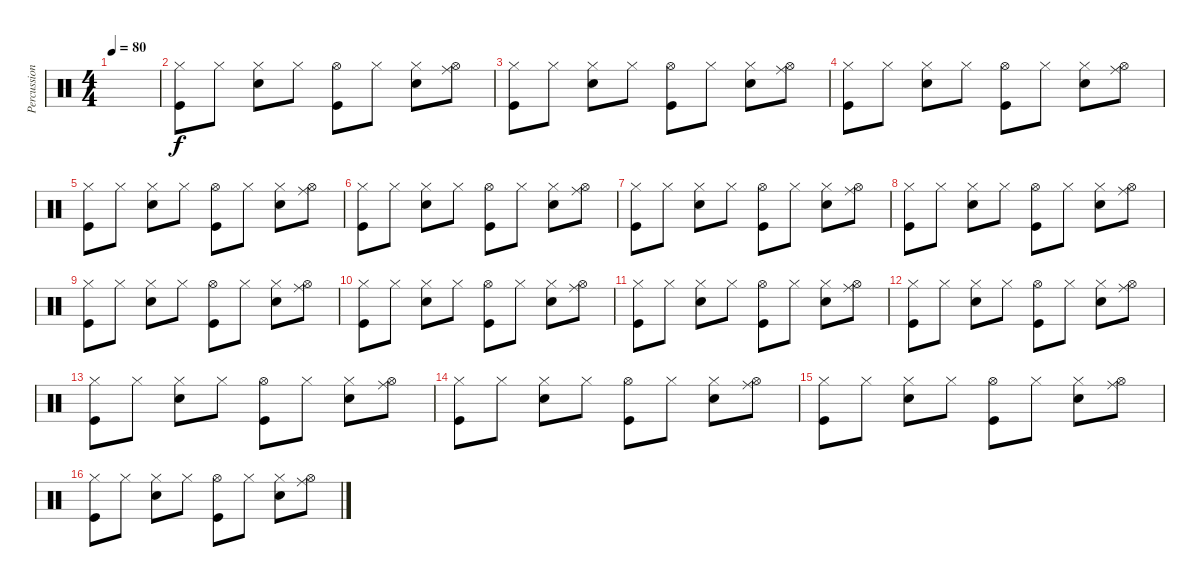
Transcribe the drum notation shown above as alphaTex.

\track ("Percussion" "Percussion") {instrument percussion}
\staff {score}
\articulation defaults
\ts (4 4)
\tempo 80
\clef neutral
\ks c
|
("Hi-Hat (closed)" "Kick (hit)").8 "Hi-Hat (closed)".8 ("Hi-Hat (closed)" "Snare (hit) 2").8 "Hi-Hat (closed)".8 ("Hi-Hat (open)" "Kick (hit)").8 "Hi-Hat (closed)".8 ("Hi-Hat (closed)" "Snare (hit) 2").8 ("Hi-Hat (open)" "Ride (middle)").8 |
("Hi-Hat (closed)" "Kick (hit)").8 "Hi-Hat (closed)".8 ("Hi-Hat (closed)" "Snare (hit) 2").8 "Hi-Hat (closed)".8 ("Hi-Hat (open)" "Kick (hit)").8 "Hi-Hat (closed)".8 ("Hi-Hat (closed)" "Snare (hit) 2").8 ("Hi-Hat (open)" "Ride (middle)").8 |
("Hi-Hat (closed)" "Kick (hit)").8 "Hi-Hat (closed)".8 ("Hi-Hat (closed)" "Snare (hit) 2").8 "Hi-Hat (closed)".8 ("Hi-Hat (open)" "Kick (hit)").8 "Hi-Hat (closed)".8 ("Hi-Hat (closed)" "Snare (hit) 2").8 ("Hi-Hat (open)" "Ride (middle)").8 |
("Hi-Hat (closed)" "Kick (hit)").8 "Hi-Hat (closed)".8 ("Hi-Hat (closed)" "Snare (hit) 2").8 "Hi-Hat (closed)".8 ("Hi-Hat (open)" "Kick (hit)").8 "Hi-Hat (closed)".8 ("Hi-Hat (closed)" "Snare (hit) 2").8 ("Hi-Hat (open)" "Ride (middle)").8 |
("Hi-Hat (closed)" "Kick (hit)").8 "Hi-Hat (closed)".8 ("Hi-Hat (closed)" "Snare (hit) 2").8 "Hi-Hat (closed)".8 ("Hi-Hat (open)" "Kick (hit)").8 "Hi-Hat (closed)".8 ("Hi-Hat (closed)" "Snare (hit) 2").8 ("Hi-Hat (open)" "Ride (middle)").8 |
("Hi-Hat (closed)" "Kick (hit)").8 "Hi-Hat (closed)".8 ("Hi-Hat (closed)" "Snare (hit) 2").8 "Hi-Hat (closed)".8 ("Hi-Hat (open)" "Kick (hit)").8 "Hi-Hat (closed)".8 ("Hi-Hat (closed)" "Snare (hit) 2").8 ("Hi-Hat (open)" "Ride (middle)").8 |
("Hi-Hat (closed)" "Kick (hit)").8 "Hi-Hat (closed)".8 ("Hi-Hat (closed)" "Snare (hit) 2").8 "Hi-Hat (closed)".8 ("Hi-Hat (open)" "Kick (hit)").8 "Hi-Hat (closed)".8 ("Hi-Hat (closed)" "Snare (hit) 2").8 ("Hi-Hat (open)" "Ride (middle)").8 |
("Hi-Hat (closed)" "Kick (hit)").8 "Hi-Hat (closed)".8 ("Hi-Hat (closed)" "Snare (hit) 2").8 "Hi-Hat (closed)".8 ("Hi-Hat (open)" "Kick (hit)").8 "Hi-Hat (closed)".8 ("Hi-Hat (closed)" "Snare (hit) 2").8 ("Hi-Hat (open)" "Ride (middle)").8 |
("Hi-Hat (closed)" "Kick (hit)").8 "Hi-Hat (closed)".8 ("Hi-Hat (closed)" "Snare (hit) 2").8 "Hi-Hat (closed)".8 ("Hi-Hat (open)" "Kick (hit)").8 "Hi-Hat (closed)".8 ("Hi-Hat (closed)" "Snare (hit) 2").8 ("Hi-Hat (open)" "Ride (middle)").8 |
("Hi-Hat (closed)" "Kick (hit)").8 "Hi-Hat (closed)".8 ("Hi-Hat (closed)" "Snare (hit) 2").8 "Hi-Hat (closed)".8 ("Hi-Hat (open)" "Kick (hit)").8 "Hi-Hat (closed)".8 ("Hi-Hat (closed)" "Snare (hit) 2").8 ("Hi-Hat (open)" "Ride (middle)").8 |
("Hi-Hat (closed)" "Kick (hit)").8 "Hi-Hat (closed)".8 ("Hi-Hat (closed)" "Snare (hit) 2").8 "Hi-Hat (closed)".8 ("Hi-Hat (open)" "Kick (hit)").8 "Hi-Hat (closed)".8 ("Hi-Hat (closed)" "Snare (hit) 2").8 ("Hi-Hat (open)" "Ride (middle)").8 |
("Hi-Hat (closed)" "Kick (hit)").8 "Hi-Hat (closed)".8 ("Hi-Hat (closed)" "Snare (hit) 2").8 "Hi-Hat (closed)".8 ("Hi-Hat (open)" "Kick (hit)").8 "Hi-Hat (closed)".8 ("Hi-Hat (closed)" "Snare (hit) 2").8 ("Hi-Hat (open)" "Ride (middle)").8 |
("Hi-Hat (closed)" "Kick (hit)").8 "Hi-Hat (closed)".8 ("Hi-Hat (closed)" "Snare (hit) 2").8 "Hi-Hat (closed)".8 ("Hi-Hat (open)" "Kick (hit)").8 "Hi-Hat (closed)".8 ("Hi-Hat (closed)" "Snare (hit) 2").8 ("Hi-Hat (open)" "Ride (middle)").8 |
("Hi-Hat (closed)" "Kick (hit)").8 "Hi-Hat (closed)".8 ("Hi-Hat (closed)" "Snare (hit) 2").8 "Hi-Hat (closed)".8 ("Hi-Hat (open)" "Kick (hit)").8 "Hi-Hat (closed)".8 ("Hi-Hat (closed)" "Snare (hit) 2").8 ("Hi-Hat (open)" "Ride (middle)").8 |
("Hi-Hat (closed)" "Kick (hit)").8 "Hi-Hat (closed)".8 ("Hi-Hat (closed)" "Snare (hit) 2").8 "Hi-Hat (closed)".8 ("Hi-Hat (open)" "Kick (hit)").8 "Hi-Hat (closed)".8 ("Hi-Hat (closed)" "Snare (hit) 2").8 ("Hi-Hat (open)" "Ride (middle)").8
